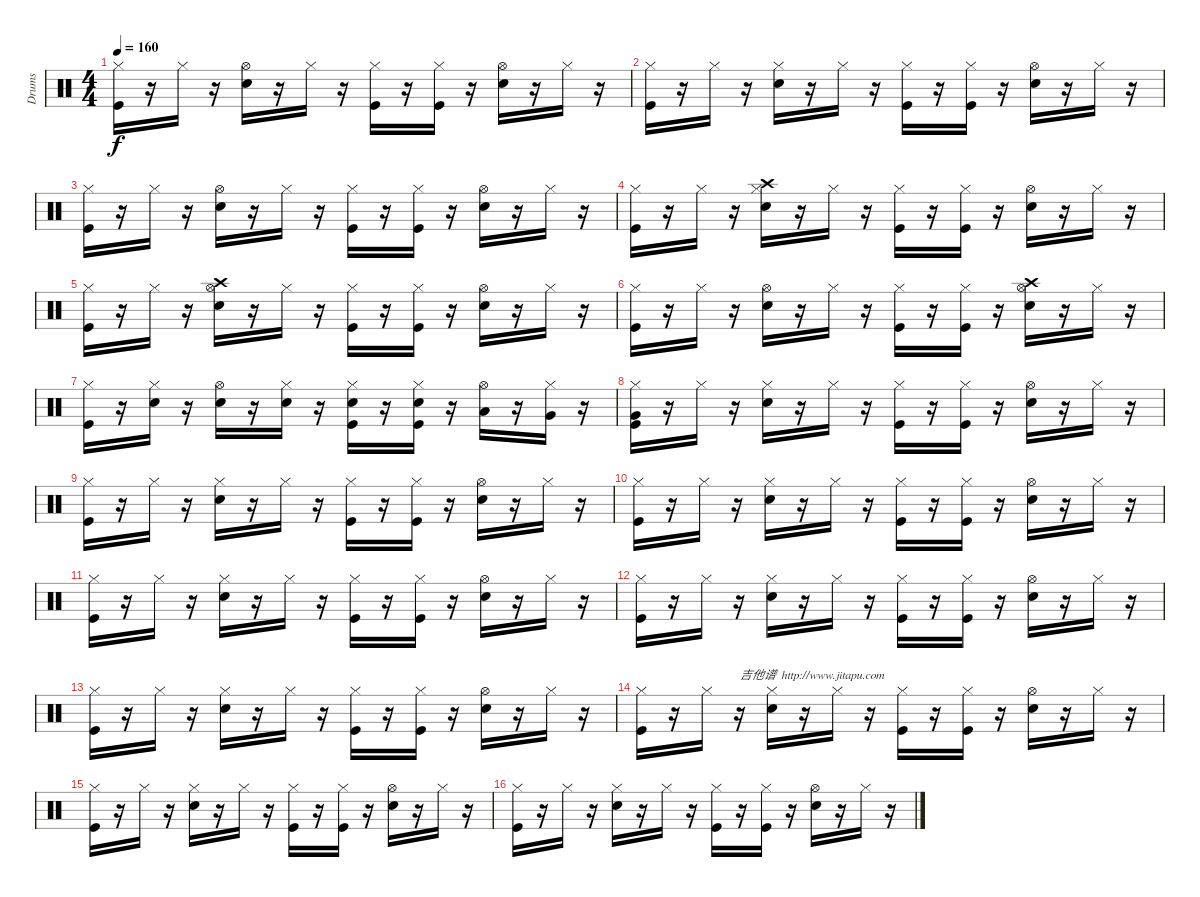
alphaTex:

\track ("Drums" "Drums") {instrument percussion}
\staff {score}
\articulation defaults
\ts (4 4)
\tempo 160
\clef neutral
\ks c
("Hi-Hat (closed)" "Kick (hit)").16{dy f} r.16 "Hi-Hat (closed)".16 r.16 ("Hi-Hat (open)" "Snare (hit) 2").16 r.16 "Hi-Hat (closed)".16 r.16 ("Hi-Hat (closed)" "Kick (hit)").16 r.16 ("Kick (hit)" "Hi-Hat (closed)").16 r.16 ("Hi-Hat (open)" "Snare (hit) 2").16 r.16 "Hi-Hat (closed)".16 r.16 |
("Hi-Hat (closed)" "Kick (hit)").16 r.16 "Hi-Hat (closed)".16 r.16 ("Hi-Hat (closed)" "Snare (hit) 2").16 r.16 "Hi-Hat (closed)".16 r.16 ("Hi-Hat (closed)" "Kick (hit)").16 r.16 ("Kick (hit)" "Hi-Hat (closed)").16 r.16 ("Hi-Hat (open)" "Snare (hit) 2").16 r.16 "Hi-Hat (closed)".16 r.16 |
("Hi-Hat (closed)" "Kick (hit)").16 r.16 "Hi-Hat (closed)".16 r.16 ("Hi-Hat (open)" "Snare (hit) 2").16 r.16 "Hi-Hat (closed)".16 r.16 ("Hi-Hat (closed)" "Kick (hit)").16 r.16 ("Kick (hit)" "Hi-Hat (closed)").16 r.16 ("Hi-Hat (open)" "Snare (hit) 2").16 r.16 "Hi-Hat (closed)".16 r.16 |
("Hi-Hat (closed)" "Kick (hit)").16 r.16 "Hi-Hat (closed)".16 r.16 ("Crash high (hit)" "Hi-Hat (closed)" "Snare (hit) 2").16 r.16 "Hi-Hat (closed)".16 r.16 ("Hi-Hat (closed)" "Kick (hit)").16 r.16 ("Kick (hit)" "Hi-Hat (closed)").16 r.16 ("Hi-Hat (open)" "Snare (hit) 2").16 r.16 "Hi-Hat (closed)".16 r.16 |
("Hi-Hat (closed)" "Kick (hit)").16 r.16 "Hi-Hat (closed)".16 r.16 ("Crash high (hit)" "Hi-Hat (open)" "Snare (hit) 2").16 r.16 "Hi-Hat (closed)".16 r.16 ("Hi-Hat (closed)" "Kick (hit)").16 r.16 ("Kick (hit)" "Hi-Hat (closed)").16 r.16 ("Hi-Hat (open)" "Snare (hit) 2").16 r.16 "Hi-Hat (closed)".16 r.16 |
("Hi-Hat (closed)" "Kick (hit)").16 r.16 "Hi-Hat (closed)".16 r.16 ("Hi-Hat (open)" "Snare (hit) 2").16 r.16 "Hi-Hat (closed)".16 r.16 ("Hi-Hat (closed)" "Kick (hit)").16 r.16 ("Kick (hit)" "Hi-Hat (closed)").16 r.16 ("Crash high (hit)" "Hi-Hat (open)" "Snare (hit) 2").16 r.16 "Hi-Hat (closed)".16 r.16 |
("Hi-Hat (closed)" "Kick (hit)").16 r.16 ("Snare (hit) 2" "Hi-Hat (closed)").16 r.16 ("Hi-Hat (open)" "Snare (hit) 2").16 r.16 ("Snare (hit) 2" "Hi-Hat (closed)").16 r.16 ("Snare (hit) 2" "Hi-Hat (closed)" "Kick (hit)").16 r.16 ("Snare (hit) 2" "Kick (hit)" "Hi-Hat (closed)").16 r.16 ("Low Tom (hit)" "Hi-Hat (open)").16 r.16 ("Very Low Tom (hit)" "Hi-Hat (closed)").16 r.16 |
("Very Low Tom (hit)" "Hi-Hat (closed)" "Kick (hit)").16 r.16 "Hi-Hat (closed)".16 r.16 ("Hi-Hat (closed)" "Snare (hit) 2").16 r.16 "Hi-Hat (closed)".16 r.16 ("Hi-Hat (closed)" "Kick (hit)").16 r.16 ("Kick (hit)" "Hi-Hat (closed)").16 r.16 ("Hi-Hat (open)" "Snare (hit) 2").16 r.16 "Hi-Hat (closed)".16 r.16 |
("Hi-Hat (closed)" "Kick (hit)").16 r.16 "Hi-Hat (closed)".16 r.16 ("Hi-Hat (closed)" "Snare (hit) 2").16 r.16 "Hi-Hat (closed)".16 r.16 ("Hi-Hat (closed)" "Kick (hit)").16 r.16 ("Kick (hit)" "Hi-Hat (closed)").16 r.16 ("Hi-Hat (open)" "Snare (hit) 2").16 r.16 "Hi-Hat (closed)".16 r.16 |
("Hi-Hat (closed)" "Kick (hit)").16 r.16 "Hi-Hat (closed)".16 r.16 ("Hi-Hat (closed)" "Snare (hit) 2").16 r.16 "Hi-Hat (closed)".16 r.16 ("Hi-Hat (closed)" "Kick (hit)").16 r.16 ("Kick (hit)" "Hi-Hat (closed)").16 r.16 ("Hi-Hat (open)" "Snare (hit) 2").16 r.16 "Hi-Hat (closed)".16 r.16 |
("Hi-Hat (closed)" "Kick (hit)").16 r.16 "Hi-Hat (closed)".16 r.16 ("Hi-Hat (closed)" "Snare (hit) 2").16 r.16 "Hi-Hat (closed)".16 r.16 ("Hi-Hat (closed)" "Kick (hit)").16 r.16 ("Kick (hit)" "Hi-Hat (closed)").16 r.16 ("Hi-Hat (open)" "Snare (hit) 2").16 r.16 "Hi-Hat (closed)".16 r.16 |
("Hi-Hat (closed)" "Kick (hit)").16 r.16 "Hi-Hat (closed)".16 r.16 ("Hi-Hat (closed)" "Snare (hit) 2").16 r.16 "Hi-Hat (closed)".16 r.16 ("Hi-Hat (closed)" "Kick (hit)").16 r.16 ("Kick (hit)" "Hi-Hat (closed)").16 r.16 ("Hi-Hat (open)" "Snare (hit) 2").16 r.16 "Hi-Hat (closed)".16 r.16 |
("Hi-Hat (closed)" "Kick (hit)").16 r.16 "Hi-Hat (closed)".16 r.16 ("Hi-Hat (closed)" "Snare (hit) 2").16 r.16 "Hi-Hat (closed)".16 r.16 ("Hi-Hat (closed)" "Kick (hit)").16 r.16 ("Kick (hit)" "Hi-Hat (closed)").16 r.16 ("Hi-Hat (open)" "Snare (hit) 2").16 r.16 "Hi-Hat (closed)".16 r.16 |
("Hi-Hat (closed)" "Kick (hit)").16 r.16 "Hi-Hat (closed)".16 r.16{txt "吉他谱  http://www.jitapu.com"} ("Hi-Hat (closed)" "Snare (hit) 2").16 r.16 "Hi-Hat (closed)".16 r.16 ("Hi-Hat (closed)" "Kick (hit)").16 r.16 ("Kick (hit)" "Hi-Hat (closed)").16 r.16 ("Hi-Hat (open)" "Snare (hit) 2").16 r.16 "Hi-Hat (closed)".16 r.16 |
("Hi-Hat (closed)" "Kick (hit)").16 r.16 "Hi-Hat (closed)".16 r.16 ("Hi-Hat (closed)" "Snare (hit) 2").16 r.16 "Hi-Hat (closed)".16 r.16 ("Hi-Hat (closed)" "Kick (hit)").16 r.16 ("Kick (hit)" "Hi-Hat (closed)").16 r.16 ("Hi-Hat (open)" "Snare (hit) 2").16 r.16 "Hi-Hat (closed)".16 r.16 |
("Hi-Hat (closed)" "Kick (hit)").16 r.16 "Hi-Hat (closed)".16 r.16 ("Hi-Hat (closed)" "Snare (hit) 2").16 r.16 "Hi-Hat (closed)".16 r.16 ("Hi-Hat (closed)" "Kick (hit)").16 r.16 ("Kick (hit)" "Hi-Hat (closed)").16 r.16 ("Hi-Hat (open)" "Snare (hit) 2").16 r.16 "Hi-Hat (closed)".16 r.16
